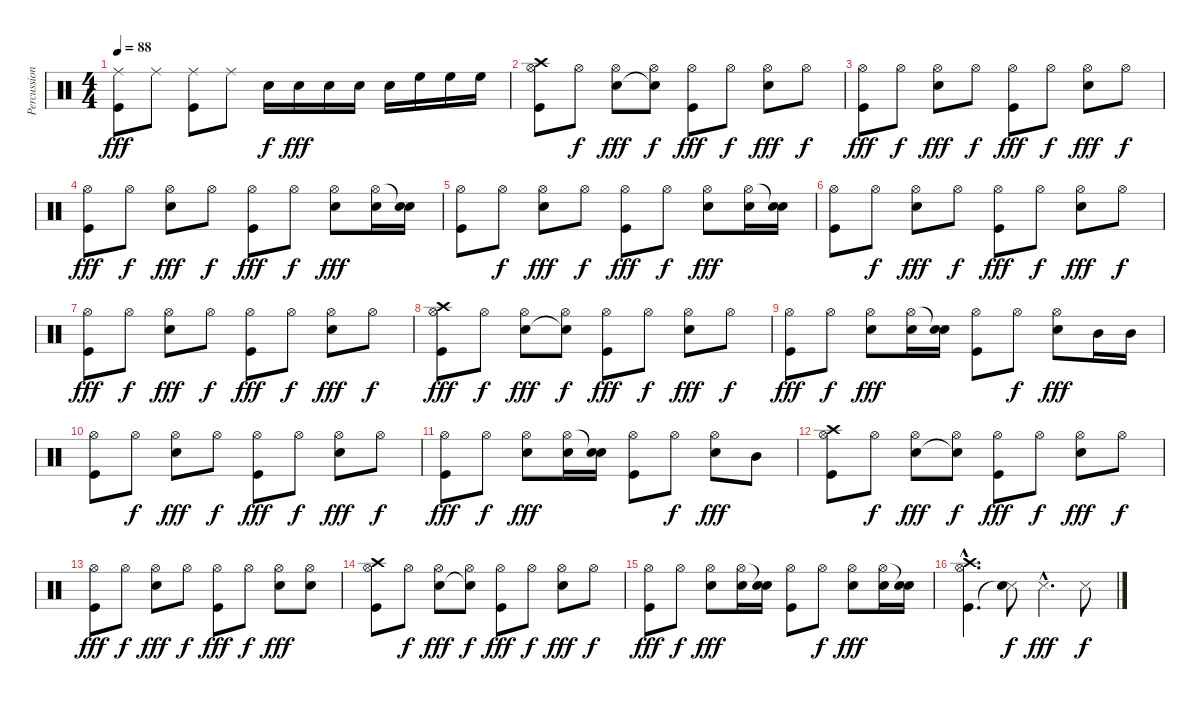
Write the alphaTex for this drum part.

\track ("Percussions" "Percussion") {instrument percussion}
\staff {score}
\articulation defaults
\ts (4 4)
\tempo 88
\clef neutral
\ks c
("Ride (middle)" "Kick (hit)").8{dy fff} "Ride (middle)".8 ("Ride (middle)" "Kick (hit)").8 "Ride (middle)".8 "Snare (hit) 2".16{dy f} "Snare (hit) 2".16{dy fff} "Snare (hit) 2".16 "Snare (hit) 2".16 "Snare (hit) 2".16 "High Floor Tom (hit)".16 "High Floor Tom (hit)".16 "High Floor Tom (hit)".16 |
("Hi-Hat (open)" "Kick (hit)" "Crash high (hit)").8 "Hi-Hat (open)".8{dy f} ("Hi-Hat (open)" "Snare (hit) 2").8{dy fff} ("Hi-Hat (open)" "Snare (hit)"{t}).8{dy f} ("Hi-Hat (open)" "Kick (hit)").8{dy fff} "Hi-Hat (open)".8{dy f} ("Hi-Hat (open)" "Snare (hit) 2").8{dy fff} "Hi-Hat (open)".8{dy f} |
("Hi-Hat (open)" "Kick (hit)").8{dy fff} "Hi-Hat (open)".8{dy f} ("Hi-Hat (open)" "Snare (hit) 2").8{dy fff} "Hi-Hat (open)".8{dy f} ("Hi-Hat (open)" "Kick (hit)").8{dy fff} "Hi-Hat (open)".8{dy f} ("Hi-Hat (open)" "Snare (hit) 2").8{dy fff} "Hi-Hat (open)".8{dy f} |
("Hi-Hat (open)" "Kick (hit)").8{dy fff} "Hi-Hat (open)".8{dy f} ("Hi-Hat (open)" "Snare (hit) 2").8{dy fff} "Hi-Hat (open)".8{dy f} ("Hi-Hat (open)" "Kick (hit)").8{dy fff} "Hi-Hat (open)".8{dy f} ("Hi-Hat (open)" "Snare (hit) 2").8{dy fff} ("Hi-Hat (open)" "Snare (hit) 2").16 ("Snare (hit)"{t} "Snare (hit) 2").16 |
("Hi-Hat (open)" "Kick (hit)").8 "Hi-Hat (open)".8{dy f} ("Hi-Hat (open)" "Snare (hit) 2").8{dy fff} "Hi-Hat (open)".8{dy f} ("Hi-Hat (open)" "Kick (hit)").8{dy fff} "Hi-Hat (open)".8{dy f} ("Hi-Hat (open)" "Snare (hit) 2").8{dy fff} ("Hi-Hat (open)" "Snare (hit) 2").16 ("Snare (hit)"{t} "Snare (hit) 2").16 |
("Hi-Hat (open)" "Kick (hit)").8 "Hi-Hat (open)".8{dy f} ("Hi-Hat (open)" "Snare (hit) 2").8{dy fff} "Hi-Hat (open)".8{dy f} ("Hi-Hat (open)" "Kick (hit)").8{dy fff} "Hi-Hat (open)".8{dy f} ("Hi-Hat (open)" "Snare (hit) 2").8{dy fff} "Hi-Hat (open)".8{dy f} |
("Hi-Hat (open)" "Kick (hit)").8{dy fff} "Hi-Hat (open)".8{dy f} ("Hi-Hat (open)" "Snare (hit) 2").8{dy fff} "Hi-Hat (open)".8{dy f} ("Hi-Hat (open)" "Kick (hit)").8{dy fff} "Hi-Hat (open)".8{dy f} ("Hi-Hat (open)" "Snare (hit) 2").8{dy fff} "Hi-Hat (open)".8{dy f} |
("Hi-Hat (open)" "Kick (hit)" "Crash high (hit)").8{dy fff} "Hi-Hat (open)".8{dy f} ("Hi-Hat (open)" "Snare (hit) 2").8{dy fff} ("Hi-Hat (open)" "Snare (hit)"{t}).8{dy f} ("Hi-Hat (open)" "Kick (hit)").8{dy fff} "Hi-Hat (open)".8{dy f} ("Hi-Hat (open)" "Snare (hit) 2").8{dy fff} "Hi-Hat (open)".8{dy f} |
("Hi-Hat (open)" "Kick (hit)").8{dy fff} "Hi-Hat (open)".8{dy f} ("Hi-Hat (open)" "Snare (hit) 2").8{dy fff} ("Hi-Hat (open)" "Snare (hit) 2").16 ("Snare (hit)"{t} "Snare (hit) 2").16 ("Hi-Hat (open)" "Kick (hit)").8 "Hi-Hat (open)".8{dy f} ("Hi-Hat (open)" "Snare (hit) 2").8{dy fff} "Mid Tom (hit)".16 "Mid Tom (hit)".16 |
("Hi-Hat (open)" "Kick (hit)").8 "Hi-Hat (open)".8{dy f} ("Hi-Hat (open)" "Snare (hit) 2").8{dy fff} "Hi-Hat (open)".8{dy f} ("Hi-Hat (open)" "Kick (hit)").8{dy fff} "Hi-Hat (open)".8{dy f} ("Hi-Hat (open)" "Snare (hit) 2").8{dy fff} "Hi-Hat (open)".8{dy f} |
("Hi-Hat (open)" "Kick (hit)").8{dy fff} "Hi-Hat (open)".8{dy f} ("Hi-Hat (open)" "Snare (hit) 2").8{dy fff} ("Hi-Hat (open)" "Snare (hit) 2").16 ("Snare (hit)"{t} "Snare (hit) 2").16 ("Hi-Hat (open)" "Kick (hit)").8 "Hi-Hat (open)".8{dy f} ("Hi-Hat (open)" "Snare (hit) 2").8{dy fff} "Mid Tom (hit)".8 |
("Hi-Hat (open)" "Kick (hit)" "Crash high (hit)").8 "Hi-Hat (open)".8{dy f} ("Hi-Hat (open)" "Snare (hit) 2").8{dy fff} ("Hi-Hat (open)" "Snare (hit)"{t}).8{dy f} ("Hi-Hat (open)" "Kick (hit)").8{dy fff} "Hi-Hat (open)".8{dy f} ("Hi-Hat (open)" "Snare (hit) 2").8{dy fff} "Hi-Hat (open)".8{dy f} |
("Hi-Hat (open)" "Kick (hit)").8{dy fff} "Hi-Hat (open)".8{dy f} ("Hi-Hat (open)" "Snare (hit) 2").8{dy fff} "Hi-Hat (open)".8{dy f} ("Hi-Hat (open)" "Kick (hit)").8{dy fff} "Hi-Hat (open)".8{dy f} ("Hi-Hat (open)" "Snare (hit) 2").8{dy fff} ("Hi-Hat (open)" "Snare (hit) 2").8 |
("Hi-Hat (open)" "Kick (hit)" "Crash high (hit)").8 "Hi-Hat (open)".8{dy f} ("Hi-Hat (open)" "Snare (hit) 2").8{dy fff} ("Hi-Hat (open)" "Snare (hit)"{t}).8{dy f} ("Hi-Hat (open)" "Kick (hit)").8{dy fff} "Hi-Hat (open)".8{dy f} ("Hi-Hat (open)" "Snare (hit) 2").8{dy fff} "Hi-Hat (open)".8{dy f} |
("Hi-Hat (open)" "Kick (hit)").8{dy fff} "Hi-Hat (open)".8{dy f} ("Hi-Hat (open)" "Snare (hit) 2").8{dy fff} ("Hi-Hat (open)" "Snare (hit) 2").16 ("Snare (hit)"{t} "Snare (hit) 2").16 ("Hi-Hat (open)" "Kick (hit)").8 "Hi-Hat (open)".8{dy f} ("Hi-Hat (open)" "Snare (hit) 2").8{dy fff} ("Hi-Hat (open)" "Snare (hit) 2").16 ("Snare (hit)"{t} "Snare (hit) 2").16 |
("Hi-Hat (open)"{hac} "Kick (hit)"{hac} "Crash high (hit)"{hac}).4{d} ("Metronome (hit)" "Snare (hit)"{t}).8{dy f} "Metronome (hit)"{hac}.4{d dy fff} "Metronome (hit)".8{dy f}
